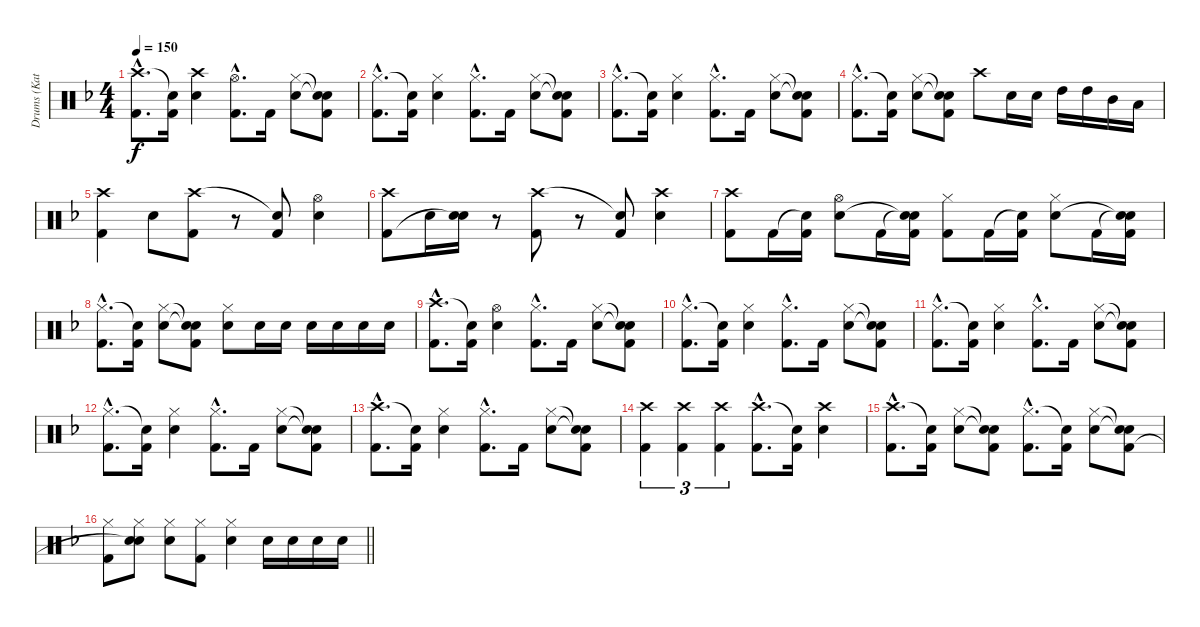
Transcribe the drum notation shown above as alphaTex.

\track ("Drums (Katsuji)" "Drums (Kat") {instrument percussion}
\staff {score}
\articulation defaults
\ts (4 4)
\tempo 150
\clef neutral
\ks f
("Crash high (hit)"{hac} "Kick (hit) 2"{hac}).8{d dy f} ("Snare (hit)"{t} "Kick (hit) 2").16 ("Crash high (hit)" "Snare (hit) 2").4 ("Hi-Hat (open)"{hac} "Kick (hit) 2"{hac}).8{d} "Kick (hit) 2".16 ("Hi-Hat (closed)" "Snare (hit) 2").8 ("Snare (hit)"{t} "Snare (hit)"{t} "Kick (hit) 2").8 |
("Hi-Hat (closed)"{hac} "Kick (hit) 2"{hac}).8{d} ("Snare (hit)"{t} "Kick (hit) 2").16 ("Hi-Hat (closed)" "Snare (hit) 2").4 ("Hi-Hat (closed)"{hac} "Kick (hit) 2"{hac}).8{d} "Kick (hit) 2".16 ("Hi-Hat (closed)" "Snare (hit) 2").8 ("Snare (hit)"{t} "Snare (hit)"{t} "Kick (hit) 2").8 |
("Hi-Hat (closed)"{hac} "Kick (hit) 2"{hac}).8{d} ("Snare (hit)"{t} "Kick (hit) 2").16 ("Hi-Hat (closed)" "Snare (hit) 2").4 ("Hi-Hat (closed)"{hac} "Kick (hit) 2"{hac}).8{d} "Kick (hit) 2".16 ("Hi-Hat (closed)" "Snare (hit) 2").8 ("Snare (hit)"{t} "Snare (hit)"{t} "Kick (hit) 2").8 |
("Hi-Hat (closed)"{hac} "Kick (hit) 2"{hac}).8{d} ("Snare (hit)"{t} "Kick (hit) 2").16 ("Hi-Hat (closed)" "Snare (hit) 2").8 ("Snare (hit)"{t} "Snare (hit)"{t} "Kick (hit) 2").8 "Crash high (hit)".8 "Snare (hit) 2".16 "Snare (hit) 2".16 "High Tom (hit)".16 "High Tom (hit)".16 "Mid Tom (hit)".16 "Low Tom (hit)".16 |
("Crash high (hit)" "Kick (hit) 2").4 "Snare (hit) 2".8 ("Crash high (hit)" "Kick (hit) 2").8 r.8 ("Snare (hit)"{t} "Kick (hit) 2").8 ("Hi-Hat (open)" "Snare (hit) 2").4 |
("Crash high (hit)" "Kick (hit) 2").8 "Snare (hit) 2".16 ("Snare (hit) 2" "Snare (hit)"{t}).16 r.8 ("Crash high (hit)" "Kick (hit) 2").8 r.8 ("Snare (hit)"{t} "Kick (hit) 2").8 ("Crash high (hit)" "Snare (hit) 2").4 |
("Crash high (hit)" "Kick (hit) 2").8 "Kick (hit) 2".16 ("Snare (hit)"{t} "Kick (hit) 2").16 ("Hi-Hat (open)" "Snare (hit) 2").8 "Kick (hit) 2".16 ("Snare (hit)"{t} "Snare (hit)"{t} "Kick (hit) 2").16 ("Hi-Hat (closed)" "Kick (hit) 2").8 "Kick (hit) 2".16 ("Snare (hit)"{t} "Kick (hit) 2").16 ("Hi-Hat (closed)" "Snare (hit) 2").8 "Kick (hit) 2".16 ("Snare (hit)"{t} "Snare (hit)"{t} "Kick (hit) 2").16 |
("Hi-Hat (closed)"{hac} "Kick (hit) 2"{hac}).8{d} ("Snare (hit)"{t} "Kick (hit) 2").16 ("Hi-Hat (closed)" "Snare (hit) 2").8 ("Snare (hit)"{t} "Snare (hit)"{t} "Kick (hit) 2").8 ("Hi-Hat (closed)" "Snare (hit) 2").8 "Snare (hit) 2".16 "Snare (hit) 2".16 "Snare (hit) 2".16 "Snare (hit) 2".16 "Snare (hit) 2".16 "Snare (hit) 2".16 |
("Crash high (hit)"{hac} "Kick (hit) 2"{hac}).8{d} ("Snare (hit)"{t} "Kick (hit) 2").16 ("Hi-Hat (open)" "Snare (hit) 2").4 ("Hi-Hat (closed)"{hac} "Kick (hit) 2"{hac}).8{d} "Kick (hit) 2".16 ("Hi-Hat (closed)" "Snare (hit) 2").8 ("Snare (hit)"{t} "Snare (hit)"{t} "Kick (hit) 2").8 |
("Hi-Hat (closed)"{hac} "Kick (hit) 2"{hac}).8{d} ("Snare (hit)"{t} "Kick (hit) 2").16 ("Hi-Hat (closed)" "Snare (hit) 2").4 ("Hi-Hat (closed)"{hac} "Kick (hit) 2"{hac}).8{d} "Kick (hit) 2".16 ("Hi-Hat (closed)" "Snare (hit) 2").8 ("Snare (hit)"{t} "Snare (hit)"{t} "Kick (hit) 2").8 |
("Hi-Hat (closed)"{hac} "Kick (hit) 2"{hac}).8{d} ("Snare (hit)"{t} "Kick (hit) 2").16 ("Hi-Hat (closed)" "Snare (hit) 2").4 ("Hi-Hat (closed)"{hac} "Kick (hit) 2"{hac}).8{d} "Kick (hit) 2".16 ("Hi-Hat (closed)" "Snare (hit) 2").8 ("Snare (hit)"{t} "Snare (hit)"{t} "Kick (hit) 2").8 |
("Hi-Hat (closed)"{hac} "Kick (hit) 2"{hac}).8{d} ("Snare (hit)"{t} "Kick (hit) 2").16 ("Hi-Hat (closed)" "Snare (hit) 2").4 ("Hi-Hat (closed)"{hac} "Kick (hit) 2"{hac}).8{d} "Kick (hit) 2".16 ("Hi-Hat (closed)" "Snare (hit) 2").8 ("Snare (hit)"{t} "Snare (hit)"{t} "Kick (hit) 2").8 |
("Crash high (hit)"{hac} "Kick (hit) 2"{hac}).8{d} ("Snare (hit)"{t} "Kick (hit) 2").16 ("Hi-Hat (closed)" "Snare (hit) 2").4 ("Hi-Hat (closed)"{hac} "Kick (hit) 2"{hac}).8{d} "Kick (hit) 2".16 ("Hi-Hat (closed)" "Snare (hit) 2").8 ("Snare (hit)"{t} "Snare (hit)"{t} "Kick (hit) 2").8 |
("Crash high (hit)" "Kick (hit) 2").4{tu (3 2)} ("Crash high (hit)" "Kick (hit) 2").4{tu (3 2)} ("Crash high (hit)" "Kick (hit) 2").4{tu (3 2)} ("Crash high (hit)"{hac} "Kick (hit) 2"{hac}).8{d} ("Snare (hit)"{t} "Kick (hit) 2").16 ("Crash high (hit)" "Snare (hit) 2").4 |
("Crash high (hit)"{hac} "Kick (hit) 2"{hac}).8{d} ("Snare (hit)"{t} "Kick (hit) 2").16 ("Hi-Hat (closed)" "Snare (hit) 2").8 ("Snare (hit)"{t} "Snare (hit)"{t} "Kick (hit) 2").8 ("Hi-Hat (closed)"{hac} "Kick (hit) 2"{hac}).8{d} ("Snare (hit)"{t} "Kick (hit) 2").16 ("Hi-Hat (closed)" "Snare (hit) 2").8 ("Snare (hit)"{t} "Snare (hit)"{t} "Kick (hit) 2").8 |
\barLineRight lightlight
("Hi-Hat (closed)" "Kick (hit) 2").8 ("Hi-Hat (closed)" "Snare (hit) 2" "Snare (hit)"{t}).8 ("Hi-Hat (closed)" "Snare (hit) 2").8 ("Hi-Hat (closed)" "Kick (hit) 2").8 ("Hi-Hat (closed)" "Snare (hit) 2").4 "Snare (hit) 2".16 "Snare (hit) 2".16 "Snare (hit) 2".16 "Snare (hit) 2".16
